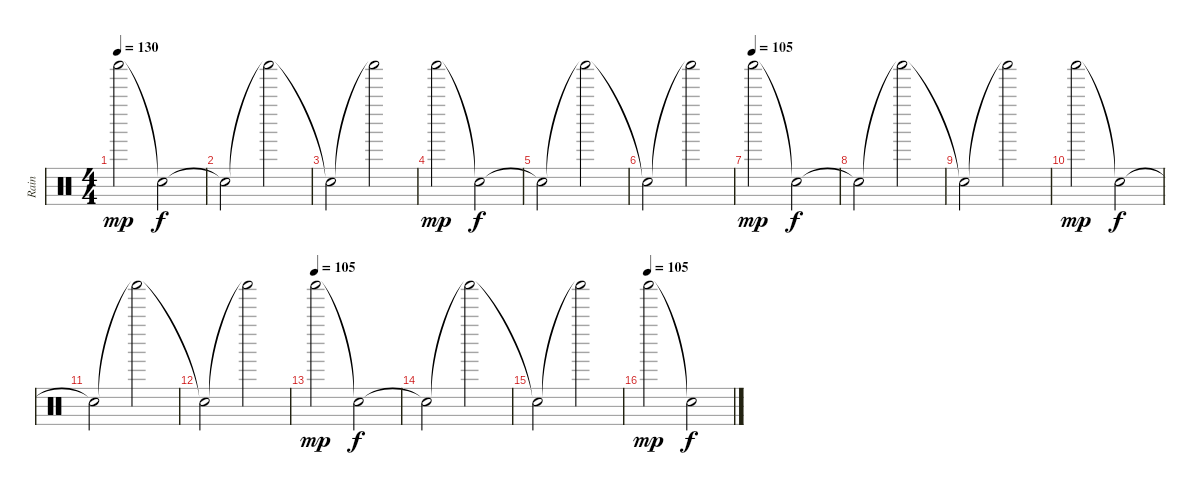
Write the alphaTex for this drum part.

\track ("Rain" "Rain") {instrument percussion}
\staff {score}
\articulation defaults
\ts (4 4)
\tempo 130
\clef neutral
\ks c "Shaker (hit)".2{dy mp} "Snare (hit)"{t}.2{dy f}
|
"Snare (hit)"{t}.2 "Shaker (hit)"{t}.2 |
"Snare (hit)"{t}.2 "Shaker (hit)"{t}.2 |
"Shaker (hit)".2{dy mp} "Snare (hit)"{t}.2{dy f} |
"Snare (hit)"{t}.2 "Shaker (hit)"{t}.2 |
"Snare (hit)"{t}.2 "Shaker (hit)"{t}.2 |
\tempo (105)
"Shaker (hit)".2{dy mp} "Snare (hit)"{t}.2{dy f} |
"Snare (hit)"{t}.2 "Shaker (hit)"{t}.2 |
"Snare (hit)"{t}.2 "Shaker (hit)"{t}.2 |
"Shaker (hit)".2{dy mp} "Snare (hit)"{t}.2{dy f} |
"Snare (hit)"{t}.2 "Shaker (hit)"{t}.2 |
"Snare (hit)"{t}.2 "Shaker (hit)"{t}.2 |
\tempo (105)
"Shaker (hit)".2{dy mp} "Snare (hit)"{t}.2{dy f} |
"Snare (hit)"{t}.2 "Shaker (hit)"{t}.2 |
"Snare (hit)"{t}.2 "Shaker (hit)"{t}.2 |
\tempo (105)
"Shaker (hit)".2{dy mp} "Snare (hit)"{t}.2{dy f}
